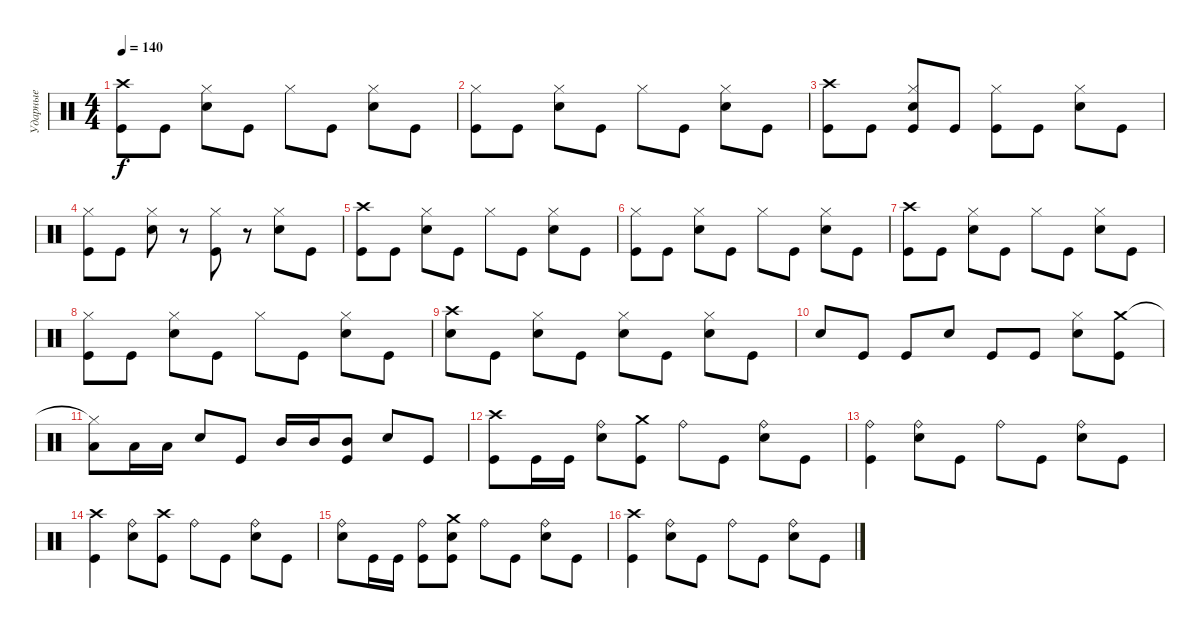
\track ("Ударные" "Ударные") {instrument percussion}
\staff {score}
\articulation defaults
\ts (4 4)
\tempo 140
\clef neutral
\ks c
("Crash high (hit)" "Kick (hit)").8{dy f} "Kick (hit)".8 ("Hi-Hat (closed)" "Electric Snare (hit)").8 "Kick (hit)".8 "Hi-Hat (closed)".8 "Kick (hit)".8 ("Hi-Hat (closed)" "Electric Snare (hit)").8 "Kick (hit)".8 |
("Hi-Hat (closed)" "Kick (hit)").8 "Kick (hit)".8 ("Hi-Hat (closed)" "Electric Snare (hit)").8 "Kick (hit)".8 "Hi-Hat (closed)".8 "Kick (hit)".8 ("Hi-Hat (closed)" "Electric Snare (hit)").8 "Kick (hit)".8 |
("Crash high (hit)" "Kick (hit)").8 "Kick (hit)".8 ("Hi-Hat (closed)" "Electric Snare (hit)" "Kick (hit)").8 "Kick (hit)".8 ("Hi-Hat (closed)" "Kick (hit)").8 "Kick (hit)".8 ("Hi-Hat (closed)" "Electric Snare (hit)").8 "Kick (hit)".8 |
("Hi-Hat (closed)" "Kick (hit)").8 "Kick (hit)".8 ("Hi-Hat (closed)" "Electric Snare (hit)").8 r.8 ("Hi-Hat (closed)" "Kick (hit)").8 r.8 ("Hi-Hat (closed)" "Electric Snare (hit)").8 "Kick (hit)".8 |
("Crash high (hit)" "Kick (hit)").8 "Kick (hit)".8 ("Hi-Hat (closed)" "Electric Snare (hit)").8 "Kick (hit)".8 "Hi-Hat (closed)".8 "Kick (hit)".8 ("Hi-Hat (closed)" "Electric Snare (hit)").8 "Kick (hit)".8 |
("Hi-Hat (closed)" "Kick (hit)").8 "Kick (hit)".8 ("Hi-Hat (closed)" "Electric Snare (hit)").8 "Kick (hit)".8 "Hi-Hat (closed)".8 "Kick (hit)".8 ("Hi-Hat (closed)" "Electric Snare (hit)").8 "Kick (hit)".8 |
("Crash high (hit)" "Kick (hit)").8 "Kick (hit)".8 ("Hi-Hat (closed)" "Electric Snare (hit)").8 "Kick (hit)".8 "Hi-Hat (closed)".8 "Kick (hit)".8 ("Hi-Hat (closed)" "Electric Snare (hit)").8 "Kick (hit)".8 |
("Hi-Hat (closed)" "Kick (hit)").8 "Kick (hit)".8 ("Hi-Hat (closed)" "Electric Snare (hit)").8 "Kick (hit)".8 "Hi-Hat (closed)".8 "Kick (hit)".8 ("Hi-Hat (closed)" "Electric Snare (hit)").8 "Kick (hit)".8 |
("Crash high (hit)" "Electric Snare (hit)").8 "Kick (hit)".8 ("Hi-Hat (closed)" "Electric Snare (hit)").8 "Kick (hit)".8 ("Hi-Hat (closed)" "Electric Snare (hit)").8 "Kick (hit)".8 ("Hi-Hat (closed)" "Electric Snare (hit)").8 "Kick (hit)".8 |
"Electric Snare (hit)".8 "Kick (hit)".8 "Kick (hit)".8 "Electric Snare (hit)".8 "Kick (hit)".8 "Kick (hit)".8 ("Hi-Hat (closed)" "Electric Snare (hit)").8 ("Crash medium (hit)" "Kick (hit)").8 |
("Hi-Hat (closed)"{t} "Low Tom (hit)").8 "Low Tom (hit)".16 "Low Tom (hit)".16 "Electric Snare (hit)".8 "Kick (hit)".8 "Mid Tom (hit)".16 "Mid Tom (hit)".16 ("Mid Tom (hit)" "Kick (hit)").8 "Electric Snare (hit)".8 "Kick (hit)".8 |
("Crash high (hit)" "Kick (hit)").8 "Kick (hit)".16 "Kick (hit)".16 ("Ride (bell)" "Electric Snare (hit)").8 ("Crash medium (hit)" "Kick (hit)").8 "Ride (bell)".8 "Kick (hit)".8 ("Ride (bell)" "Electric Snare (hit)").8 "Kick (hit)".8 |
("Ride (bell)" "Kick (hit)").4 ("Ride (bell)" "Electric Snare (hit)").8 "Kick (hit)".8 "Ride (bell)".8 "Kick (hit)".8 ("Ride (bell)" "Electric Snare (hit)").8 "Kick (hit)".8 |
("Crash high (hit)" "Kick (hit)").4 ("Ride (bell)" "Electric Snare (hit)").8 ("Crash high (hit)" "Kick (hit)").8 "Ride (bell)".8 "Kick (hit)".8 ("Ride (bell)" "Electric Snare (hit)").8 "Kick (hit)".8 |
("Ride (bell)" "Electric Snare (hit)").8 "Kick (hit)".16 "Kick (hit)".16 ("Ride (bell)" "Kick (hit)").8 ("Crash medium (hit)" "Electric Snare (hit)" "Kick (hit)").8 "Ride (bell)".8 "Kick (hit)".8 ("Ride (bell)" "Electric Snare (hit)").8 "Kick (hit)".8 |
("Crash high (hit)" "Kick (hit)").4 ("Ride (bell)" "Electric Snare (hit)").8 "Kick (hit)".8 "Ride (bell)".8 "Kick (hit)".8 ("Ride (bell)" "Electric Snare (hit)").8 "Kick (hit)".8
